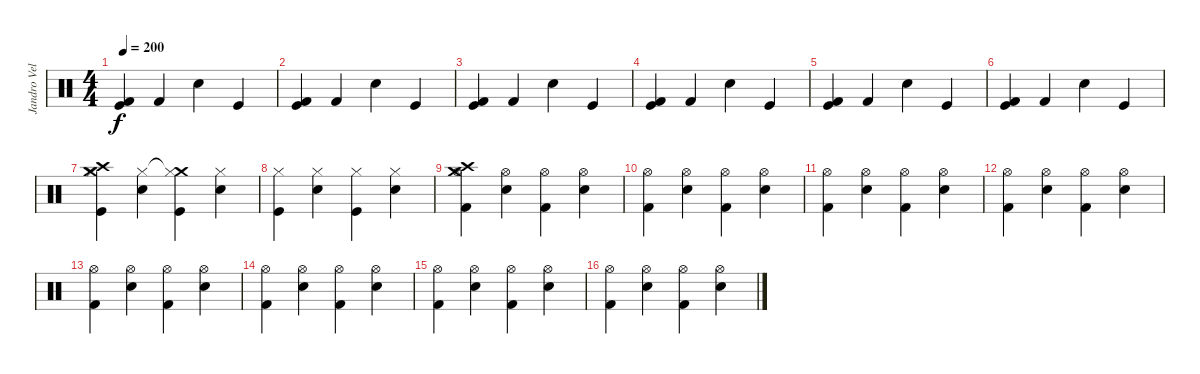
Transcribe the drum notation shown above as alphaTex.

\track ("Jandro Velázquez" "Jandro Vel") {instrument percussion}
\staff {score}
\articulation defaults
\ts (4 4)
\tempo 200
\clef neutral
\ks c
("Kick (hit) 2" "Kick (hit)").4{dy f volume 10} "Kick (hit) 2".4 "Snare (hit) 2".4 "Kick (hit)".4 |
("Kick (hit) 2" "Kick (hit)").4{volume 10} "Kick (hit) 2".4 "Snare (hit) 2".4 "Kick (hit)".4 |
("Kick (hit) 2" "Kick (hit)").4{volume 10} "Kick (hit) 2".4 "Snare (hit) 2".4 "Kick (hit)".4 |
("Kick (hit) 2" "Kick (hit)").4{volume 10} "Kick (hit) 2".4 "Snare (hit) 2".4 "Kick (hit)".4 |
("Kick (hit) 2" "Kick (hit)").4{volume 10} "Kick (hit) 2".4 "Snare (hit) 2".4 "Kick (hit)".4 |
("Kick (hit) 2" "Kick (hit)").4{volume 10} "Kick (hit) 2".4 "Snare (hit) 2".4 "Kick (hit)".4 |
("Crash high (hit)" "Crash medium (hit)" "Hi-Hat (closed)" "Kick (hit)").4 ("Hi-Hat (closed)" "Snare (hit) 2").4 ("Crash medium (hit)"{t} "Hi-Hat (closed)" "Kick (hit)").4 ("Hi-Hat (closed)" "Snare (hit) 2").4 |
("Hi-Hat (closed)" "Kick (hit)").4 ("Hi-Hat (closed)" "Snare (hit) 2").4 ("Hi-Hat (closed)" "Kick (hit)").4 ("Hi-Hat (closed)" "Snare (hit) 2").4 |
("Crash high (hit)" "Crash medium (hit)" "Hi-Hat (open)" "Kick (hit) 2").4 ("Hi-Hat (open)" "Snare (hit) 2").4 ("Hi-Hat (open)" "Kick (hit) 2").4 ("Hi-Hat (open)" "Snare (hit) 2").4 |
("Hi-Hat (open)" "Kick (hit) 2").4 ("Hi-Hat (open)" "Snare (hit) 2").4 ("Hi-Hat (open)" "Kick (hit) 2").4 ("Hi-Hat (open)" "Snare (hit) 2").4 |
("Hi-Hat (open)" "Kick (hit) 2").4 ("Hi-Hat (open)" "Snare (hit) 2").4 ("Hi-Hat (open)" "Kick (hit) 2").4 ("Hi-Hat (open)" "Snare (hit) 2").4 |
("Hi-Hat (open)" "Kick (hit) 2").4 ("Hi-Hat (open)" "Snare (hit) 2").4 ("Hi-Hat (open)" "Kick (hit) 2").4 ("Hi-Hat (open)" "Snare (hit) 2").4 |
("Hi-Hat (open)" "Kick (hit) 2").4 ("Hi-Hat (open)" "Snare (hit) 2").4 ("Hi-Hat (open)" "Kick (hit) 2").4 ("Hi-Hat (open)" "Snare (hit) 2").4 |
("Hi-Hat (open)" "Kick (hit) 2").4 ("Hi-Hat (open)" "Snare (hit) 2").4 ("Hi-Hat (open)" "Kick (hit) 2").4 ("Hi-Hat (open)" "Snare (hit) 2").4 |
("Hi-Hat (open)" "Kick (hit) 2").4 ("Hi-Hat (open)" "Snare (hit) 2").4 ("Hi-Hat (open)" "Kick (hit) 2").4 ("Hi-Hat (open)" "Snare (hit) 2").4 |
("Hi-Hat (open)" "Kick (hit) 2").4 ("Hi-Hat (open)" "Snare (hit) 2").4 ("Hi-Hat (open)" "Kick (hit) 2").4 ("Hi-Hat (open)" "Snare (hit) 2").4
